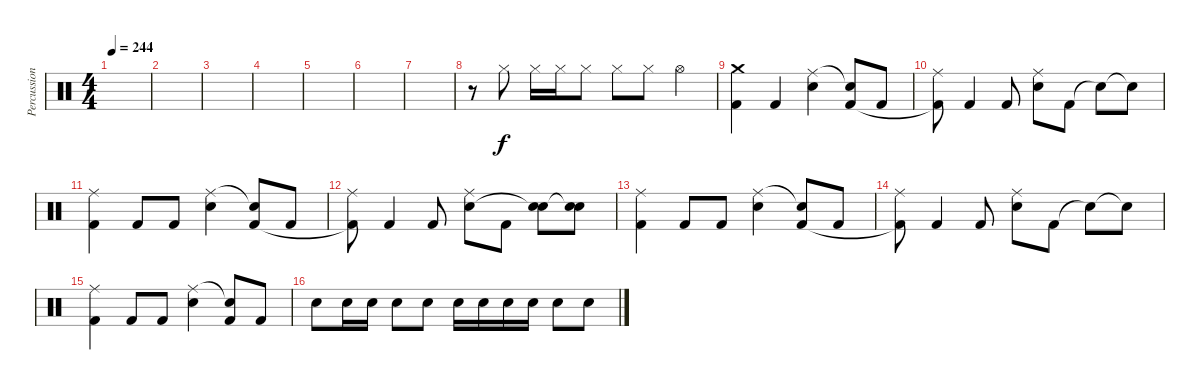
\track ("Percussions" "Percussion") {instrument percussion}
\staff {score}
\articulation defaults
\ts (4 4)
\tempo 244
\clef neutral
\ks c
|
|
|
|
|
|
|
r.8 "Hi-Hat (closed)".8 "Hi-Hat (closed)".16 "Hi-Hat (closed)".16 "Hi-Hat (closed)".8 "Hi-Hat (closed)".8 "Hi-Hat (closed)".8 "Hi-Hat (open)".4 |
("Crash medium (hit)" "Kick (hit) 2").4 "Kick (hit) 2".4 ("Ride (middle)" "Electric Snare (hit)").4 ("Snare (hit)"{t} "Kick (hit) 2").8 "Kick (hit) 2".8 |
("Ride (middle)" "Kick (hit) 2"{t}).8 "Kick (hit) 2".4 "Kick (hit) 2".8 ("Ride (middle)" "Electric Snare (hit)").8 "Kick (hit) 2".8 "Snare (hit)"{t}.8 "Snare (hit)"{t}.8 |
("Ride (middle)" "Kick (hit) 2").4 "Kick (hit) 2".8 "Kick (hit) 2".8 ("Ride (middle)" "Electric Snare (hit)").4 ("Snare (hit)"{t} "Kick (hit) 2").8 "Kick (hit) 2".8 |
("Ride (middle)" "Kick (hit) 2"{t}).8 "Kick (hit) 2".4 "Kick (hit) 2".8 ("Ride (middle)" "Electric Snare (hit)").8 "Kick (hit) 2".8 ("Electric Snare (hit)" "Snare (hit)"{t}).8 ("Electric Snare (hit)" "Snare (hit)"{t}).8 |
("Ride (middle)" "Kick (hit) 2").4 "Kick (hit) 2".8 "Kick (hit) 2".8 ("Ride (middle)" "Electric Snare (hit)").4 ("Snare (hit)"{t} "Kick (hit) 2").8 "Kick (hit) 2".8 |
("Ride (middle)" "Kick (hit) 2"{t}).8 "Kick (hit) 2".4 "Kick (hit) 2".8 ("Ride (middle)" "Electric Snare (hit)").8 "Kick (hit) 2".8 "Snare (hit)"{t}.8 "Snare (hit)"{t}.8 |
("Ride (middle)" "Kick (hit) 2").4 "Kick (hit) 2".8 "Kick (hit) 2".8 ("Ride (middle)" "Electric Snare (hit)").4 ("Snare (hit)"{t} "Kick (hit) 2").8 "Kick (hit) 2".8 |
"Electric Snare (hit)".8 "Electric Snare (hit)".16 "Electric Snare (hit)".16 "Electric Snare (hit)".8 "Electric Snare (hit)".8 "Electric Snare (hit)".16 "Electric Snare (hit)".16 "Electric Snare (hit)".16 "Electric Snare (hit)".16 "Electric Snare (hit)".8 "Electric Snare (hit)".8
